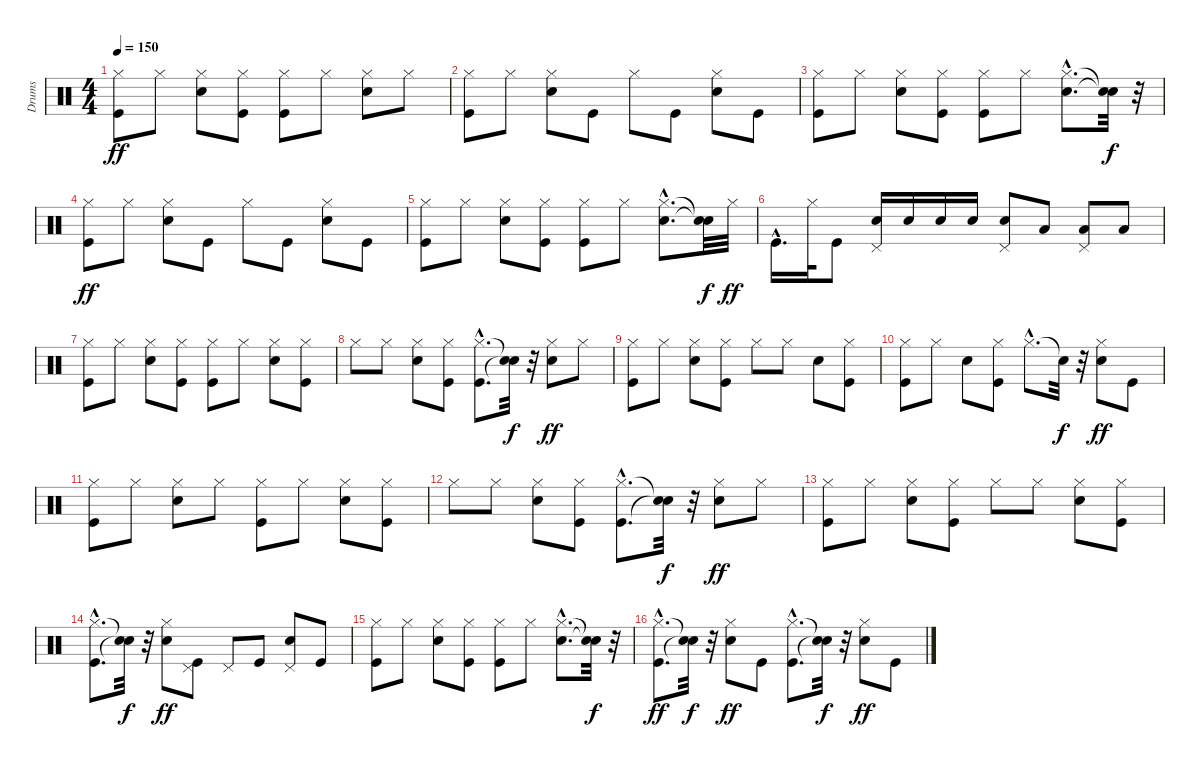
\track ("Drums" "Drums") {instrument percussion}
\staff {score}
\articulation defaults
\ts (4 4)
\tempo 150
\clef neutral
\ks c
("Kick (hit)" "Hi-Hat (closed)").8{dy ff} "Hi-Hat (closed)".8 ("Snare (hit) 2" "Hi-Hat (closed)").8 ("Kick (hit)" "Hi-Hat (closed)").8 ("Kick (hit)" "Hi-Hat (closed)").8 "Hi-Hat (closed)".8 ("Snare (hit) 2" "Hi-Hat (closed)").8 "Hi-Hat (closed)".8 |
("Kick (hit)" "Hi-Hat (closed)").8 "Hi-Hat (closed)".8 ("Snare (hit) 2" "Hi-Hat (closed)").8 "Kick (hit)".8 "Hi-Hat (closed)".8 "Kick (hit)".8 ("Snare (hit) 2" "Hi-Hat (closed)").8 "Kick (hit)".8 |
("Kick (hit)" "Hi-Hat (closed)").8 "Hi-Hat (closed)".8 ("Snare (hit) 2" "Hi-Hat (closed)").8 ("Kick (hit)" "Hi-Hat (closed)").8 ("Kick (hit)" "Hi-Hat (closed)").8 "Hi-Hat (closed)".8 ("Snare (hit) 2"{hac} "Hi-Hat (closed)"{hac}).8{d} ("Snare (hit)"{t} "Snare (hit)"{t}).32{dy f} r.32 |
("Kick (hit)" "Hi-Hat (closed)").8{dy ff} "Hi-Hat (closed)".8 ("Snare (hit) 2" "Hi-Hat (closed)").8 "Kick (hit)".8 "Hi-Hat (closed)".8 "Kick (hit)".8 ("Snare (hit) 2" "Hi-Hat (closed)").8 "Kick (hit)".8 |
("Kick (hit)" "Hi-Hat (closed)").8 "Hi-Hat (closed)".8 ("Snare (hit) 2" "Hi-Hat (closed)").8 ("Kick (hit)" "Hi-Hat (closed)").8 ("Kick (hit)" "Hi-Hat (closed)").8 "Hi-Hat (closed)".8 ("Snare (hit) 2"{hac} "Hi-Hat (closed)"{hac}).8{d} ("Snare (hit)"{t} "Snare (hit)"{t}).32{dy f} "Hi-Hat (closed)".32{dy ff} |
"Kick (hit)"{hac}.16{d} "Hi-Hat (closed)".32 "Kick (hit)".8 ("Snare (hit) 2" "Pedal Hi-Hat (hit)").16 "Snare (hit) 2".16 "Snare (hit) 2".16 "Snare (hit) 2".16 ("Snare (hit) 2" "Pedal Hi-Hat (hit)").8 "Low Tom (hit)".8 ("Low Floor Tom (hit)" "Pedal Hi-Hat (hit)").8 "Low Floor Tom (hit)".8 |
("Kick (hit)" "Hi-Hat (closed)").8 "Hi-Hat (closed)".8 ("Snare (hit) 2" "Hi-Hat (closed)").8 ("Kick (hit)" "Hi-Hat (closed)").8 ("Kick (hit)" "Hi-Hat (closed)").8 "Hi-Hat (closed)".8 ("Snare (hit) 2" "Hi-Hat (closed)").8 ("Kick (hit)" "Hi-Hat (closed)").8 |
"Hi-Hat (closed)".8 "Hi-Hat (closed)".8 ("Snare (hit) 2" "Hi-Hat (closed)").8 ("Kick (hit)" "Hi-Hat (closed)").8 ("Kick (hit)"{hac} "Hi-Hat (closed)"{hac}).8{d} ("Snare (hit)"{t} "Snare (hit)"{t}).32{dy f} r.32 ("Snare (hit) 2" "Hi-Hat (closed)").8{dy ff} "Hi-Hat (closed)".8 |
("Kick (hit)" "Hi-Hat (closed)").8 "Hi-Hat (closed)".8 ("Snare (hit) 2" "Hi-Hat (closed)").8 ("Kick (hit)" "Hi-Hat (closed)").8 "Hi-Hat (closed)".8 "Hi-Hat (closed)".8 "Snare (hit) 2".8 ("Kick (hit)" "Hi-Hat (closed)").8 |
("Kick (hit)" "Hi-Hat (closed)").8 "Hi-Hat (closed)".8 "Snare (hit) 2".8 ("Kick (hit)" "Hi-Hat (closed)").8 "Hi-Hat (closed)"{hac}.8{d} "Snare (hit)"{t}.32{dy f} r.32 ("Snare (hit) 2" "Hi-Hat (closed)").8{dy ff} "Kick (hit)".8 |
("Kick (hit)" "Hi-Hat (closed)").8 "Hi-Hat (closed)".8 ("Snare (hit) 2" "Hi-Hat (closed)").8 "Hi-Hat (closed)".8 ("Kick (hit)" "Hi-Hat (closed)").8 "Hi-Hat (closed)".8 ("Snare (hit) 2" "Hi-Hat (closed)").8 ("Kick (hit)" "Hi-Hat (closed)").8 |
"Hi-Hat (closed)".8 "Hi-Hat (closed)".8 ("Snare (hit) 2" "Hi-Hat (closed)").8 ("Kick (hit)" "Hi-Hat (closed)").8 ("Kick (hit)"{hac} "Hi-Hat (closed)"{hac}).8{d} ("Snare (hit)"{t} "Snare (hit)"{t}).32{dy f} r.32 ("Snare (hit) 2" "Hi-Hat (closed)").8{dy ff} "Hi-Hat (closed)".8 |
("Kick (hit)" "Hi-Hat (closed)").8 "Hi-Hat (closed)".8 ("Snare (hit) 2" "Hi-Hat (closed)").8 ("Kick (hit)" "Hi-Hat (closed)").8 "Hi-Hat (closed)".8 "Hi-Hat (closed)".8 ("Snare (hit) 2" "Hi-Hat (closed)").8 ("Kick (hit)" "Hi-Hat (closed)").8 |
("Kick (hit)"{hac} "Hi-Hat (closed)"{hac}).8{d} ("Snare (hit)"{t} "Snare (hit)"{t}).32{dy f} r.32 ("Snare (hit) 2" "Hi-Hat (closed)").8{dy ff} ("Kick (hit)" "Pedal Hi-Hat (hit)").8 "Pedal Hi-Hat (hit)".8 "Kick (hit)".8 ("Snare (hit) 2" "Pedal Hi-Hat (hit)").8 "Kick (hit)".8 |
("Kick (hit)" "Hi-Hat (closed)").8 "Hi-Hat (closed)".8 ("Snare (hit) 2" "Hi-Hat (closed)").8 ("Kick (hit)" "Hi-Hat (closed)").8 ("Kick (hit)" "Hi-Hat (closed)").8 "Hi-Hat (closed)".8 ("Snare (hit) 2"{hac} "Hi-Hat (closed)"{hac}).8{d} ("Snare (hit)"{t} "Snare (hit)"{t}).32{dy f} r.32 |
("Kick (hit)"{hac} "Hi-Hat (closed)"{hac}).8{d dy ff} ("Snare (hit)"{t} "Snare (hit)"{t}).32{dy f} r.32 ("Snare (hit) 2" "Hi-Hat (closed)").8{dy ff} "Kick (hit)".8 ("Kick (hit)"{hac} "Hi-Hat (closed)"{hac}).8{d} ("Snare (hit)"{t} "Snare (hit)"{t}).32{dy f} r.32 ("Snare (hit) 2" "Hi-Hat (closed)").8{dy ff} "Kick (hit)".8
